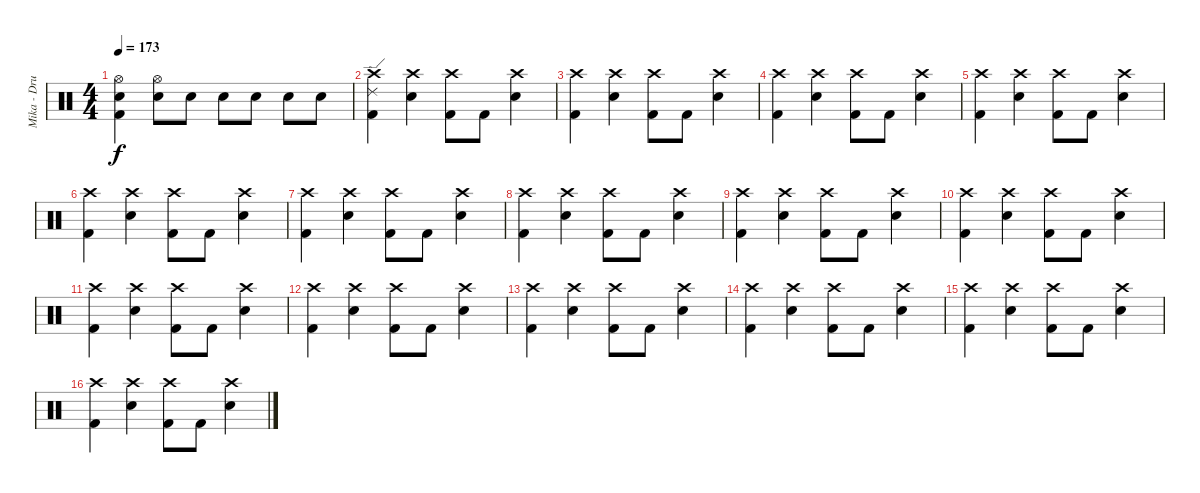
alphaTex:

\track ("Mika - Drums" "Mika - Dru") {instrument percussion}
\staff {score}
\articulation defaults
\ts (4 4)
\tempo 173
\clef neutral
\ks c
("Hi-Hat (open)" "Electric Snare (hit)" "Kick (hit) 2").4{dy f} ("Hi-Hat (open)" "Electric Snare (hit)").8 "Electric Snare (hit)".8 "Electric Snare (hit)".8 "Electric Snare (hit)".8 "Electric Snare (hit)".8 "Electric Snare (hit)".8 |
("Ride (edge) 2" "Crash high (hit)" "Kick (hit) 2").4 ("Crash high (hit)" "Electric Snare (hit)").4 ("Crash high (hit)" "Kick (hit) 2").8 "Kick (hit) 2".8 ("Crash high (hit)" "Electric Snare (hit)").4 |
("Crash high (hit)" "Kick (hit) 2").4 ("Crash high (hit)" "Electric Snare (hit)").4 ("Crash high (hit)" "Kick (hit) 2").8 "Kick (hit) 2".8 ("Crash high (hit)" "Electric Snare (hit)").4 |
("Crash high (hit)" "Kick (hit) 2").4 ("Crash high (hit)" "Electric Snare (hit)").4 ("Crash high (hit)" "Kick (hit) 2").8 "Kick (hit) 2".8 ("Crash high (hit)" "Electric Snare (hit)").4 |
("Crash high (hit)" "Kick (hit) 2").4 ("Crash high (hit)" "Electric Snare (hit)").4 ("Crash high (hit)" "Kick (hit) 2").8 "Kick (hit) 2".8 ("Crash high (hit)" "Electric Snare (hit)").4 |
("Crash high (hit)" "Kick (hit) 2").4 ("Crash high (hit)" "Electric Snare (hit)").4 ("Crash high (hit)" "Kick (hit) 2").8 "Kick (hit) 2".8 ("Crash high (hit)" "Electric Snare (hit)").4 |
("Crash high (hit)" "Kick (hit) 2").4 ("Crash high (hit)" "Electric Snare (hit)").4 ("Crash high (hit)" "Kick (hit) 2").8 "Kick (hit) 2".8 ("Crash high (hit)" "Electric Snare (hit)").4 |
("Crash high (hit)" "Kick (hit) 2").4 ("Crash high (hit)" "Electric Snare (hit)").4 ("Crash high (hit)" "Kick (hit) 2").8 "Kick (hit) 2".8 ("Crash high (hit)" "Electric Snare (hit)").4 |
("Crash high (hit)" "Kick (hit) 2").4 ("Crash high (hit)" "Electric Snare (hit)").4 ("Crash high (hit)" "Kick (hit) 2").8 "Kick (hit) 2".8 ("Crash high (hit)" "Electric Snare (hit)").4 |
("Crash high (hit)" "Kick (hit) 2").4 ("Crash high (hit)" "Electric Snare (hit)").4 ("Crash high (hit)" "Kick (hit) 2").8 "Kick (hit) 2".8 ("Crash high (hit)" "Electric Snare (hit)").4 |
("Crash high (hit)" "Kick (hit) 2").4 ("Crash high (hit)" "Electric Snare (hit)").4 ("Crash high (hit)" "Kick (hit) 2").8 "Kick (hit) 2".8 ("Crash high (hit)" "Electric Snare (hit)").4 |
("Crash high (hit)" "Kick (hit) 2").4 ("Crash high (hit)" "Electric Snare (hit)").4 ("Crash high (hit)" "Kick (hit) 2").8 "Kick (hit) 2".8 ("Crash high (hit)" "Electric Snare (hit)").4 |
("Crash high (hit)" "Kick (hit) 2").4 ("Crash high (hit)" "Electric Snare (hit)").4 ("Crash high (hit)" "Kick (hit) 2").8 "Kick (hit) 2".8 ("Crash high (hit)" "Electric Snare (hit)").4 |
("Crash high (hit)" "Kick (hit) 2").4 ("Crash high (hit)" "Electric Snare (hit)").4 ("Crash high (hit)" "Kick (hit) 2").8 "Kick (hit) 2".8 ("Crash high (hit)" "Electric Snare (hit)").4 |
("Crash high (hit)" "Kick (hit) 2").4 ("Crash high (hit)" "Electric Snare (hit)").4 ("Crash high (hit)" "Kick (hit) 2").8 "Kick (hit) 2".8 ("Crash high (hit)" "Electric Snare (hit)").4 |
("Crash high (hit)" "Kick (hit) 2").4 ("Crash high (hit)" "Electric Snare (hit)").4 ("Crash high (hit)" "Kick (hit) 2").8 "Kick (hit) 2".8 ("Crash high (hit)" "Electric Snare (hit)").4
